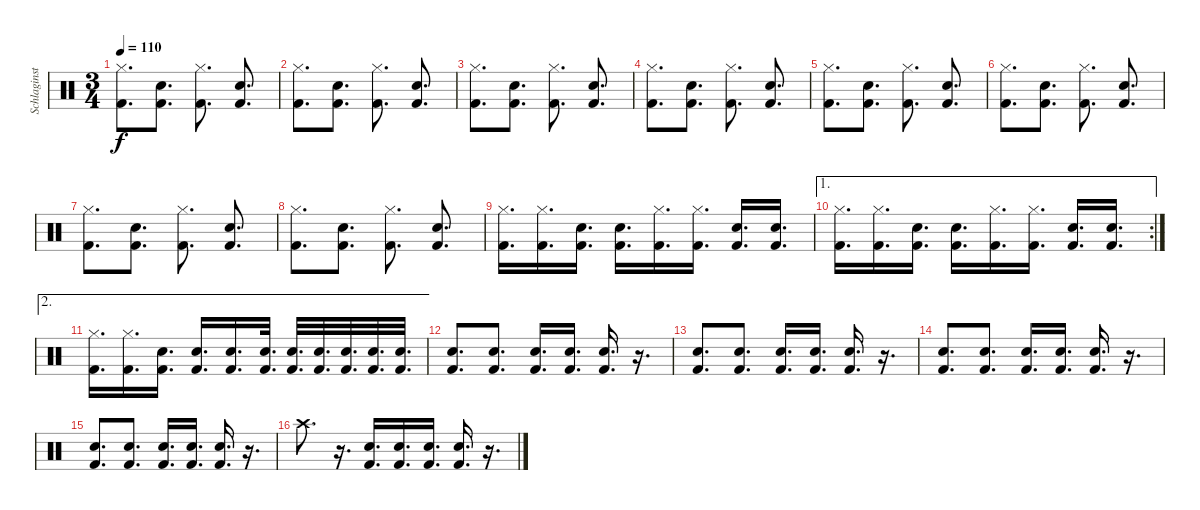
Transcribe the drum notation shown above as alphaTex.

\track ("Schlaginstrumente - Auswahl" "Schlaginst") {instrument percussion}
\staff {score}
\articulation defaults
\ts (3 4)
\tempo 110
\clef neutral
\ks c
("Hi-Hat (closed)" "Kick (hit) 2").8{d dy f} ("Electric Snare (hit)" "Kick (hit) 2").8{d} ("Hi-Hat (closed)" "Kick (hit) 2").8{d} ("Electric Snare (hit)" "Kick (hit) 2").8{d} |
("Hi-Hat (closed)" "Kick (hit) 2").8{d} ("Electric Snare (hit)" "Kick (hit) 2").8{d} ("Hi-Hat (closed)" "Kick (hit) 2").8{d} ("Electric Snare (hit)" "Kick (hit) 2").8{d} |
("Hi-Hat (closed)" "Kick (hit) 2").8{d} ("Electric Snare (hit)" "Kick (hit) 2").8{d} ("Hi-Hat (closed)" "Kick (hit) 2").8{d} ("Electric Snare (hit)" "Kick (hit) 2").8{d} |
("Hi-Hat (closed)" "Kick (hit) 2").8{d} ("Electric Snare (hit)" "Kick (hit) 2").8{d} ("Hi-Hat (closed)" "Kick (hit) 2").8{d} ("Electric Snare (hit)" "Kick (hit) 2").8{d} |
("Hi-Hat (closed)" "Kick (hit) 2").8{d} ("Electric Snare (hit)" "Kick (hit) 2").8{d} ("Hi-Hat (closed)" "Kick (hit) 2").8{d} ("Electric Snare (hit)" "Kick (hit) 2").8{d} |
("Hi-Hat (closed)" "Kick (hit) 2").8{d} ("Electric Snare (hit)" "Kick (hit) 2").8{d} ("Hi-Hat (closed)" "Kick (hit) 2").8{d} ("Electric Snare (hit)" "Kick (hit) 2").8{d} |
("Hi-Hat (closed)" "Kick (hit) 2").8{d} ("Electric Snare (hit)" "Kick (hit) 2").8{d} ("Hi-Hat (closed)" "Kick (hit) 2").8{d} ("Electric Snare (hit)" "Kick (hit) 2").8{d} |
("Hi-Hat (closed)" "Kick (hit) 2").8{d} ("Electric Snare (hit)" "Kick (hit) 2").8{d} ("Hi-Hat (closed)" "Kick (hit) 2").8{d} ("Electric Snare (hit)" "Kick (hit) 2").8{d} |
("Hi-Hat (closed)" "Kick (hit) 2").16{d} ("Hi-Hat (closed)" "Kick (hit) 2").16{d} ("Electric Snare (hit)" "Kick (hit) 2").16{d} ("Electric Snare (hit)" "Kick (hit) 2").16{d} ("Hi-Hat (closed)" "Kick (hit) 2").16{d} ("Hi-Hat (closed)" "Kick (hit) 2").16{d} ("Electric Snare (hit)" "Kick (hit) 2").16{d} ("Electric Snare (hit)" "Kick (hit) 2").16{d} |
\ae 1
\rc 2
("Hi-Hat (closed)" "Kick (hit) 2").16{d} ("Hi-Hat (closed)" "Kick (hit) 2").16{d} ("Electric Snare (hit)" "Kick (hit) 2").16{d} ("Electric Snare (hit)" "Kick (hit) 2").16{d} ("Hi-Hat (closed)" "Kick (hit) 2").16{d} ("Hi-Hat (closed)" "Kick (hit) 2").16{d} ("Electric Snare (hit)" "Kick (hit) 2").16{d} ("Electric Snare (hit)" "Kick (hit) 2").16{d} |
\ae 2
("Hi-Hat (closed)" "Kick (hit) 2").16{d} ("Hi-Hat (closed)" "Kick (hit) 2").16{d} ("Electric Snare (hit)" "Kick (hit) 2").16{d} ("Electric Snare (hit)" "Kick (hit) 2").16{d} ("Electric Snare (hit)" "Kick (hit) 2").16{d} ("Electric Snare (hit)" "Kick (hit) 2").32{d} ("Electric Snare (hit)" "Kick (hit) 2").32{d} ("Electric Snare (hit)" "Kick (hit) 2").32{d} ("Electric Snare (hit)" "Kick (hit) 2").32{d} ("Electric Snare (hit)" "Kick (hit) 2").32{d} ("Electric Snare (hit)" "Kick (hit) 2").32{d} |
("Electric Snare (hit)" "Kick (hit) 2").8{d} ("Snare (hit) 2" "Kick (hit) 2").8{d} ("Electric Snare (hit)" "Kick (hit) 2").16{d} ("Electric Snare (hit)" "Kick (hit) 2").16{d} ("Snare (hit) 2" "Kick (hit) 2").16{d} r.16{d} |
("Electric Snare (hit)" "Kick (hit) 2").8{d} ("Snare (hit) 2" "Kick (hit) 2").8{d} ("Electric Snare (hit)" "Kick (hit) 2").16{d} ("Electric Snare (hit)" "Kick (hit) 2").16{d} ("Snare (hit) 2" "Kick (hit) 2").16{d} r.16{d} |
("Electric Snare (hit)" "Kick (hit) 2").8{d} ("Snare (hit) 2" "Kick (hit) 2").8{d} ("Electric Snare (hit)" "Kick (hit) 2").16{d} ("Electric Snare (hit)" "Kick (hit) 2").16{d} ("Snare (hit) 2" "Kick (hit) 2").16{d} r.16{d} |
("Electric Snare (hit)" "Kick (hit) 2").8{d} ("Snare (hit) 2" "Kick (hit) 2").8{d} ("Electric Snare (hit)" "Kick (hit) 2").16{d} ("Electric Snare (hit)" "Kick (hit) 2").16{d} ("Snare (hit) 2" "Kick (hit) 2").16{d} r.16{d} |
"Crash high (hit)".8{d} r.16{d} ("Snare (hit) 2" "Kick (hit) 2").16{d} ("Electric Snare (hit)" "Kick (hit) 2").16{d} ("Electric Snare (hit)" "Kick (hit) 2").16{d} ("Snare (hit) 2" "Kick (hit) 2").16{d} r.16{d}
